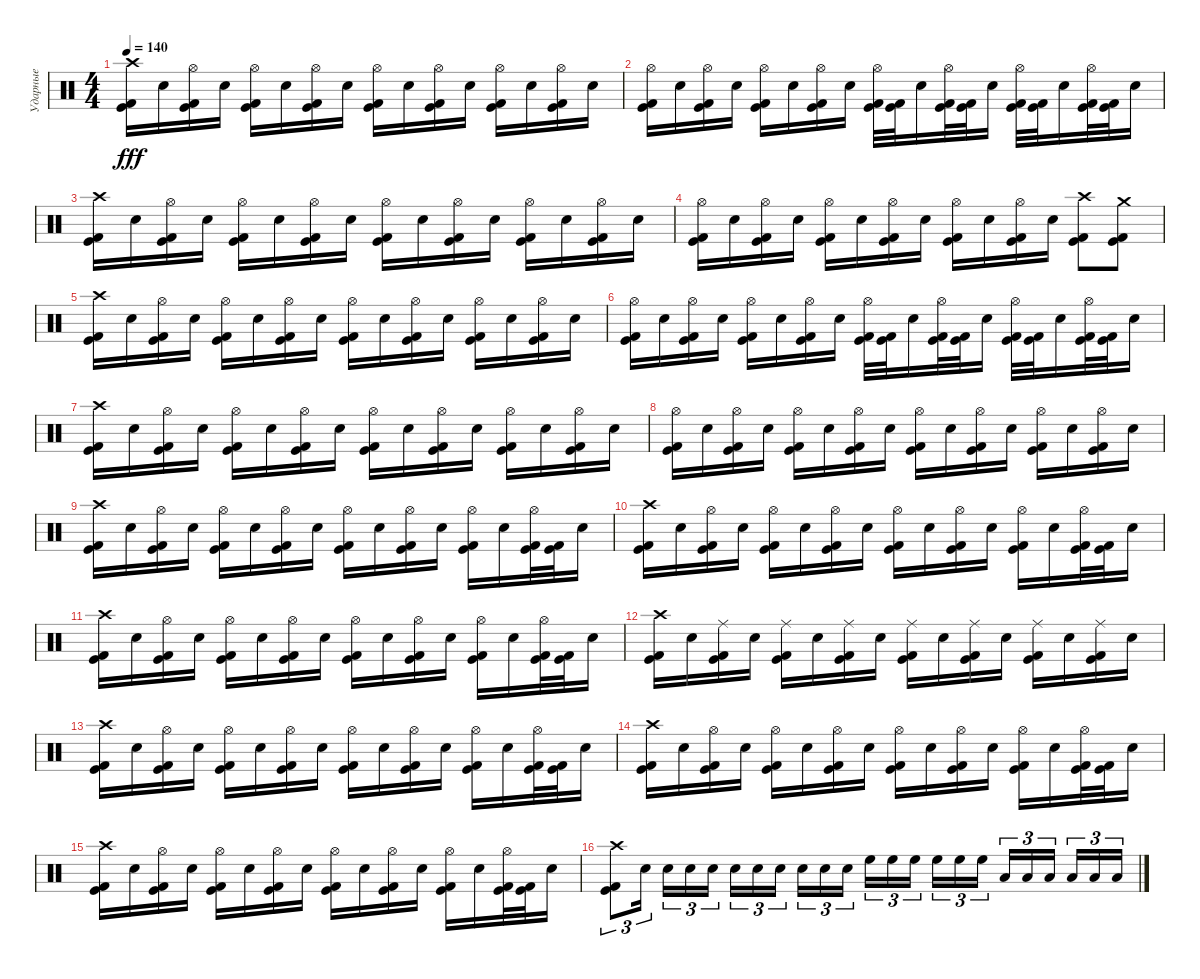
\track ("Ударные" "Ударные") {instrument percussion}
\staff {score}
\articulation defaults
\ts (4 4)
\tempo 140
\clef neutral
\ks c
("Kick (hit)" "Kick (hit) 2" "Crash high (hit)").16{dy fff} "Electric Snare (hit)".16 ("Kick (hit)" "Kick (hit) 2" "Hi-Hat (open)").16 "Electric Snare (hit)".16 ("Kick (hit)" "Kick (hit) 2" "Hi-Hat (open)").16 "Electric Snare (hit)".16 ("Kick (hit)" "Kick (hit) 2" "Hi-Hat (open)").16 "Electric Snare (hit)".16 ("Kick (hit)" "Kick (hit) 2" "Hi-Hat (open)").16 "Electric Snare (hit)".16 ("Kick (hit)" "Kick (hit) 2" "Hi-Hat (open)").16 "Electric Snare (hit)".16 ("Kick (hit)" "Kick (hit) 2" "Hi-Hat (open)").16 "Electric Snare (hit)".16 ("Kick (hit)" "Kick (hit) 2" "Hi-Hat (open)").16 "Electric Snare (hit)".16 |
("Kick (hit)" "Kick (hit) 2" "Hi-Hat (open)").16 "Electric Snare (hit)".16 ("Kick (hit)" "Kick (hit) 2" "Hi-Hat (open)").16 "Electric Snare (hit)".16 ("Kick (hit)" "Kick (hit) 2" "Hi-Hat (open)").16 "Electric Snare (hit)".16 ("Kick (hit)" "Kick (hit) 2" "Hi-Hat (open)").16 "Electric Snare (hit)".16 ("Kick (hit)" "Kick (hit) 2" "Hi-Hat (open)").32 ("Kick (hit)" "Kick (hit) 2").32 "Electric Snare (hit)".16 ("Kick (hit)" "Kick (hit) 2" "Hi-Hat (open)").32 ("Kick (hit)" "Kick (hit) 2").32 "Electric Snare (hit)".16 ("Kick (hit)" "Kick (hit) 2" "Hi-Hat (open)").32 ("Kick (hit)" "Kick (hit) 2").32 "Electric Snare (hit)".16 ("Kick (hit)" "Kick (hit) 2" "Hi-Hat (open)").32 ("Kick (hit)" "Kick (hit) 2").32 "Electric Snare (hit)".16 |
("Kick (hit)" "Kick (hit) 2" "Crash high (hit)").16 "Electric Snare (hit)".16 ("Kick (hit)" "Kick (hit) 2" "Hi-Hat (open)").16 "Electric Snare (hit)".16 ("Kick (hit)" "Kick (hit) 2" "Hi-Hat (open)").16 "Electric Snare (hit)".16 ("Kick (hit)" "Kick (hit) 2" "Hi-Hat (open)").16 "Electric Snare (hit)".16 ("Kick (hit)" "Kick (hit) 2" "Hi-Hat (open)").16 "Electric Snare (hit)".16 ("Kick (hit)" "Kick (hit) 2" "Hi-Hat (open)").16 "Electric Snare (hit)".16 ("Kick (hit)" "Kick (hit) 2" "Hi-Hat (open)").16 "Electric Snare (hit)".16 ("Kick (hit)" "Kick (hit) 2" "Hi-Hat (open)").16 "Electric Snare (hit)".16 |
("Kick (hit)" "Kick (hit) 2" "Hi-Hat (open)").16 "Electric Snare (hit)".16 ("Kick (hit)" "Kick (hit) 2" "Hi-Hat (open)").16 "Electric Snare (hit)".16 ("Kick (hit)" "Kick (hit) 2" "Hi-Hat (open)").16 "Electric Snare (hit)".16 ("Kick (hit)" "Kick (hit) 2" "Hi-Hat (open)").16 "Electric Snare (hit)".16 ("Kick (hit)" "Kick (hit) 2" "Hi-Hat (open)").16 "Electric Snare (hit)".16 ("Kick (hit)" "Kick (hit) 2" "Hi-Hat (open)").16 "Electric Snare (hit)".16 ("Kick (hit) 2" "Kick (hit)" "Crash high (hit)").8 ("Kick (hit) 2" "Kick (hit)" "Crash medium (hit)").8 |
("Kick (hit)" "Kick (hit) 2" "Crash high (hit)").16 "Electric Snare (hit)".16 ("Kick (hit)" "Kick (hit) 2" "Hi-Hat (open)").16 "Electric Snare (hit)".16 ("Kick (hit)" "Kick (hit) 2" "Hi-Hat (open)").16 "Electric Snare (hit)".16 ("Kick (hit)" "Kick (hit) 2" "Hi-Hat (open)").16 "Electric Snare (hit)".16 ("Kick (hit)" "Kick (hit) 2" "Hi-Hat (open)").16 "Electric Snare (hit)".16 ("Kick (hit)" "Kick (hit) 2" "Hi-Hat (open)").16 "Electric Snare (hit)".16 ("Kick (hit)" "Kick (hit) 2" "Hi-Hat (open)").16 "Electric Snare (hit)".16 ("Kick (hit)" "Kick (hit) 2" "Hi-Hat (open)").16 "Electric Snare (hit)".16 |
("Kick (hit)" "Kick (hit) 2" "Hi-Hat (open)").16 "Electric Snare (hit)".16 ("Kick (hit)" "Kick (hit) 2" "Hi-Hat (open)").16 "Electric Snare (hit)".16 ("Kick (hit)" "Kick (hit) 2" "Hi-Hat (open)").16 "Electric Snare (hit)".16 ("Kick (hit)" "Kick (hit) 2" "Hi-Hat (open)").16 "Electric Snare (hit)".16 ("Kick (hit)" "Kick (hit) 2" "Hi-Hat (open)").32 ("Kick (hit)" "Kick (hit) 2").32 "Electric Snare (hit)".16 ("Kick (hit)" "Kick (hit) 2" "Hi-Hat (open)").32 ("Kick (hit)" "Kick (hit) 2").32 "Electric Snare (hit)".16 ("Kick (hit)" "Kick (hit) 2" "Hi-Hat (open)").32 ("Kick (hit)" "Kick (hit) 2").32 "Electric Snare (hit)".16 ("Kick (hit)" "Kick (hit) 2" "Hi-Hat (open)").32 ("Kick (hit)" "Kick (hit) 2").32 "Electric Snare (hit)".16 |
("Kick (hit)" "Kick (hit) 2" "Crash high (hit)").16 "Electric Snare (hit)".16 ("Kick (hit)" "Kick (hit) 2" "Hi-Hat (open)").16 "Electric Snare (hit)".16 ("Kick (hit)" "Kick (hit) 2" "Hi-Hat (open)").16 "Electric Snare (hit)".16 ("Kick (hit)" "Kick (hit) 2" "Hi-Hat (open)").16 "Electric Snare (hit)".16 ("Kick (hit)" "Kick (hit) 2" "Hi-Hat (open)").16 "Electric Snare (hit)".16 ("Kick (hit)" "Kick (hit) 2" "Hi-Hat (open)").16 "Electric Snare (hit)".16 ("Kick (hit)" "Kick (hit) 2" "Hi-Hat (open)").16 "Electric Snare (hit)".16 ("Kick (hit)" "Kick (hit) 2" "Hi-Hat (open)").16 "Electric Snare (hit)".16 |
("Kick (hit)" "Kick (hit) 2" "Hi-Hat (open)").16 "Electric Snare (hit)".16 ("Kick (hit)" "Kick (hit) 2" "Hi-Hat (open)").16 "Electric Snare (hit)".16 ("Kick (hit)" "Kick (hit) 2" "Hi-Hat (open)").16 "Electric Snare (hit)".16 ("Kick (hit)" "Kick (hit) 2" "Hi-Hat (open)").16 "Electric Snare (hit)".16 ("Kick (hit)" "Kick (hit) 2" "Hi-Hat (open)").16 "Electric Snare (hit)".16 ("Kick (hit)" "Kick (hit) 2" "Hi-Hat (open)").16 "Electric Snare (hit)".16 ("Kick (hit)" "Kick (hit) 2" "Hi-Hat (open)").16 "Electric Snare (hit)".16 ("Kick (hit)" "Kick (hit) 2" "Hi-Hat (open)").16 "Electric Snare (hit)".16 |
("Kick (hit)" "Kick (hit) 2" "Crash high (hit)").16 "Electric Snare (hit)".16 ("Kick (hit)" "Kick (hit) 2" "Hi-Hat (open)").16 "Electric Snare (hit)".16 ("Kick (hit)" "Kick (hit) 2" "Hi-Hat (open)").16 "Electric Snare (hit)".16 ("Kick (hit)" "Kick (hit) 2" "Hi-Hat (open)").16 "Electric Snare (hit)".16 ("Kick (hit)" "Kick (hit) 2" "Hi-Hat (open)").16 "Electric Snare (hit)".16 ("Kick (hit)" "Kick (hit) 2" "Hi-Hat (open)").16 "Electric Snare (hit)".16 ("Kick (hit)" "Kick (hit) 2" "Hi-Hat (open)").16 "Electric Snare (hit)".16 ("Kick (hit)" "Kick (hit) 2" "Hi-Hat (open)").32 ("Kick (hit)" "Kick (hit) 2").32 "Electric Snare (hit)".16 |
("Kick (hit)" "Kick (hit) 2" "Crash high (hit)").16 "Electric Snare (hit)".16 ("Kick (hit)" "Kick (hit) 2" "Hi-Hat (open)").16 "Electric Snare (hit)".16 ("Kick (hit)" "Kick (hit) 2" "Hi-Hat (open)").16 "Electric Snare (hit)".16 ("Kick (hit)" "Kick (hit) 2" "Hi-Hat (open)").16 "Electric Snare (hit)".16 ("Kick (hit)" "Kick (hit) 2" "Hi-Hat (open)").16 "Electric Snare (hit)".16 ("Kick (hit)" "Kick (hit) 2" "Hi-Hat (open)").16 "Electric Snare (hit)".16 ("Kick (hit)" "Kick (hit) 2" "Hi-Hat (open)").16 "Electric Snare (hit)".16 ("Kick (hit)" "Kick (hit) 2" "Hi-Hat (open)").32 ("Kick (hit)" "Kick (hit) 2").32 "Electric Snare (hit)".16 |
("Kick (hit)" "Kick (hit) 2" "Crash high (hit)").16 "Electric Snare (hit)".16 ("Kick (hit)" "Kick (hit) 2" "Hi-Hat (open)").16 "Electric Snare (hit)".16 ("Kick (hit)" "Kick (hit) 2" "Hi-Hat (open)").16 "Electric Snare (hit)".16 ("Kick (hit)" "Kick (hit) 2" "Hi-Hat (open)").16 "Electric Snare (hit)".16 ("Kick (hit)" "Kick (hit) 2" "Hi-Hat (open)").16 "Electric Snare (hit)".16 ("Kick (hit)" "Kick (hit) 2" "Hi-Hat (open)").16 "Electric Snare (hit)".16 ("Kick (hit)" "Kick (hit) 2" "Hi-Hat (open)").16 "Electric Snare (hit)".16 ("Kick (hit)" "Kick (hit) 2" "Hi-Hat (open)").32 ("Kick (hit)" "Kick (hit) 2").32 "Electric Snare (hit)".16 |
("Kick (hit)" "Kick (hit) 2" "Crash high (hit)").16 "Electric Snare (hit)".16 ("Kick (hit)" "Kick (hit) 2" "Ride (middle)").16 "Electric Snare (hit)".16 ("Kick (hit)" "Kick (hit) 2" "Ride (middle)").16 "Electric Snare (hit)".16 ("Kick (hit)" "Kick (hit) 2" "Ride (middle)").16 "Electric Snare (hit)".16 ("Kick (hit)" "Kick (hit) 2" "Ride (middle)").16 "Electric Snare (hit)".16 ("Kick (hit)" "Kick (hit) 2" "Ride (middle)").16 "Electric Snare (hit)".16 ("Kick (hit)" "Kick (hit) 2" "Ride (middle)").16 "Electric Snare (hit)".16 ("Kick (hit)" "Kick (hit) 2" "Ride (middle)").16 "Electric Snare (hit)".16 |
("Kick (hit)" "Kick (hit) 2" "Crash high (hit)").16 "Electric Snare (hit)".16 ("Kick (hit)" "Kick (hit) 2" "Hi-Hat (open)").16 "Electric Snare (hit)".16 ("Kick (hit)" "Kick (hit) 2" "Hi-Hat (open)").16 "Electric Snare (hit)".16 ("Kick (hit)" "Kick (hit) 2" "Hi-Hat (open)").16 "Electric Snare (hit)".16 ("Kick (hit)" "Kick (hit) 2" "Hi-Hat (open)").16 "Electric Snare (hit)".16 ("Kick (hit)" "Kick (hit) 2" "Hi-Hat (open)").16 "Electric Snare (hit)".16 ("Kick (hit)" "Kick (hit) 2" "Hi-Hat (open)").16 "Electric Snare (hit)".16 ("Kick (hit)" "Kick (hit) 2" "Hi-Hat (open)").32 ("Kick (hit)" "Kick (hit) 2").32 "Electric Snare (hit)".16 |
("Kick (hit)" "Kick (hit) 2" "Crash high (hit)").16 "Electric Snare (hit)".16 ("Kick (hit)" "Kick (hit) 2" "Hi-Hat (open)").16 "Electric Snare (hit)".16 ("Kick (hit)" "Kick (hit) 2" "Hi-Hat (open)").16 "Electric Snare (hit)".16 ("Kick (hit)" "Kick (hit) 2" "Hi-Hat (open)").16 "Electric Snare (hit)".16 ("Kick (hit)" "Kick (hit) 2" "Hi-Hat (open)").16 "Electric Snare (hit)".16 ("Kick (hit)" "Kick (hit) 2" "Hi-Hat (open)").16 "Electric Snare (hit)".16 ("Kick (hit)" "Kick (hit) 2" "Hi-Hat (open)").16 "Electric Snare (hit)".16 ("Kick (hit)" "Kick (hit) 2" "Hi-Hat (open)").32 ("Kick (hit)" "Kick (hit) 2").32 "Electric Snare (hit)".16 |
("Kick (hit)" "Kick (hit) 2" "Crash high (hit)").16 "Electric Snare (hit)".16 ("Kick (hit)" "Kick (hit) 2" "Hi-Hat (open)").16 "Electric Snare (hit)".16 ("Kick (hit)" "Kick (hit) 2" "Hi-Hat (open)").16 "Electric Snare (hit)".16 ("Kick (hit)" "Kick (hit) 2" "Hi-Hat (open)").16 "Electric Snare (hit)".16 ("Kick (hit)" "Kick (hit) 2" "Hi-Hat (open)").16 "Electric Snare (hit)".16 ("Kick (hit)" "Kick (hit) 2" "Hi-Hat (open)").16 "Electric Snare (hit)".16 ("Kick (hit)" "Kick (hit) 2" "Hi-Hat (open)").16 "Electric Snare (hit)".16 ("Kick (hit)" "Kick (hit) 2" "Hi-Hat (open)").32 ("Kick (hit)" "Kick (hit) 2").32 "Electric Snare (hit)".16 |
("Kick (hit)" "Kick (hit) 2" "Crash high (hit)").8{tu (3 2)} "Electric Snare (hit)".16{tu (3 2) beam splitsecondary} "Electric Snare (hit)".16{tu (3 2)} "Electric Snare (hit)".16{tu (3 2)} "Electric Snare (hit)".16{tu (3 2)} "Electric Snare (hit)".16{tu (3 2)} "Electric Snare (hit)".16{tu (3 2)} "Electric Snare (hit)".16{tu (3 2) beam splitsecondary} "Electric Snare (hit)".16{tu (3 2)} "Electric Snare (hit)".16{tu (3 2)} "Electric Snare (hit)".16{tu (3 2)} "High Floor Tom (hit)".16{tu (3 2)} "High Floor Tom (hit)".16{tu (3 2)} "High Floor Tom (hit)".16{tu (3 2) beam splitsecondary} "High Floor Tom (hit)".16{tu (3 2)} "High Floor Tom (hit)".16{tu (3 2)} "High Floor Tom (hit)".16{tu (3 2)} "Low Tom (hit)".16{tu (3 2)} "Low Tom (hit)".16{tu (3 2)} "Low Tom (hit)".16{tu (3 2) beam splitsecondary} "Low Tom (hit)".16{tu (3 2)} "Low Tom (hit)".16{tu (3 2)} "Low Tom (hit)".16{tu (3 2)}
